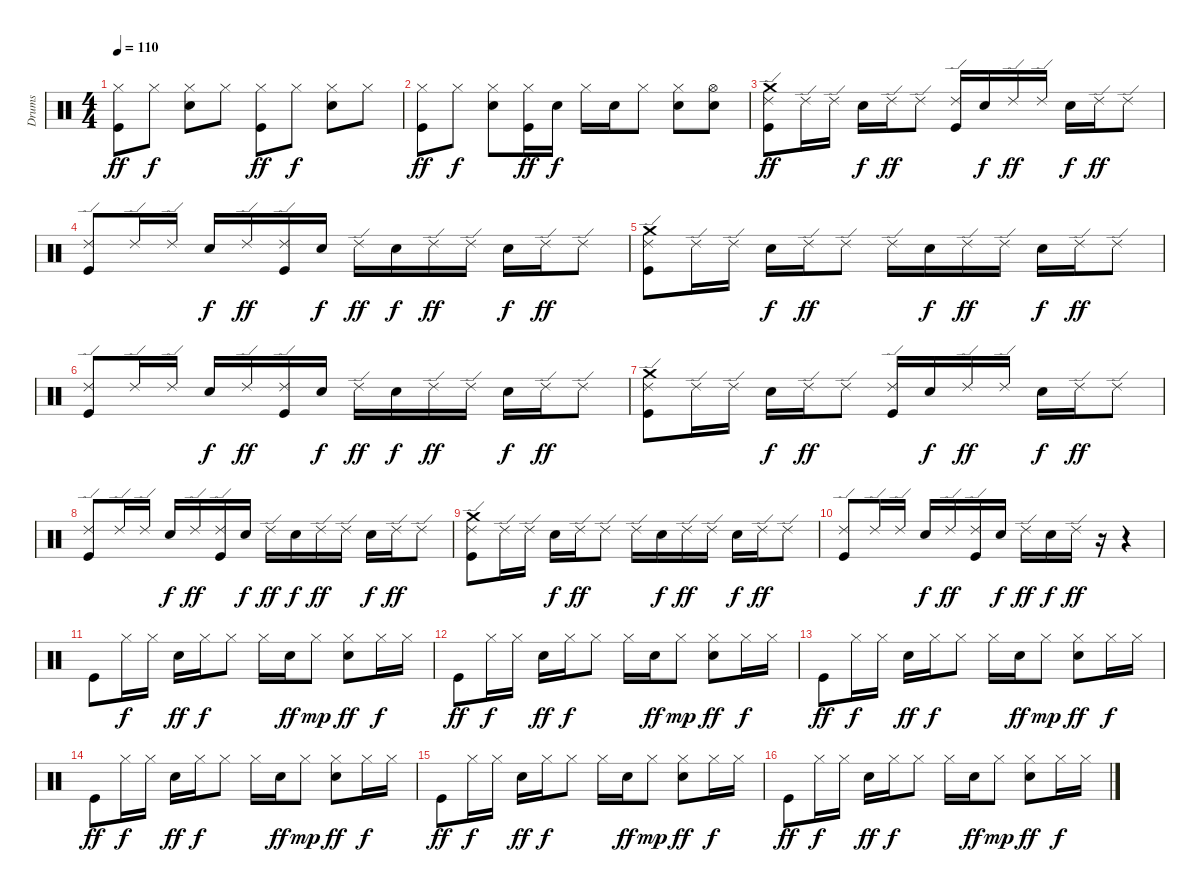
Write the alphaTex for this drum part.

\track ("Drums" "Drums") {instrument percussion}
\staff {score}
\articulation defaults
\ts (4 4)
\tempo 110
\clef neutral
\ks c
("Hi-Hat (closed)" "Kick (hit)").8{dy ff} "Hi-Hat (closed)".8{dy f} ("Hi-Hat (closed)" "Snare (hit) 2").8 "Hi-Hat (closed)".8 ("Hi-Hat (closed)" "Kick (hit)").8{dy ff} "Hi-Hat (closed)".8{dy f} ("Hi-Hat (closed)" "Snare (hit) 2").8 "Hi-Hat (closed)".8 |
("Hi-Hat (closed)" "Kick (hit)").8{dy ff} "Hi-Hat (closed)".8{dy f} ("Hi-Hat (closed)" "Snare (hit) 2").8 ("Hi-Hat (closed)" "Kick (hit)").16{dy ff} "Snare (hit) 2".16{dy f} "Hi-Hat (closed)".16 "Snare (hit) 2".16 "Hi-Hat (closed)".8 ("Hi-Hat (closed)" "Snare (hit) 2").8 ("Hi-Hat (open)" "Snare (hit) 2").8 |
("Ride (edge) 2" "Crash medium (hit)" "Kick (hit)").8{dy ff} "Ride (edge) 2".16 "Ride (edge) 2".16 "Snare (hit) 2".16{dy f} "Ride (edge) 2".16{dy ff} "Ride (edge) 2".8 ("Ride (edge) 2" "Kick (hit)").16 "Snare (hit) 2".16{dy f} "Ride (edge) 2".16{dy ff} "Ride (edge) 2".16 "Snare (hit) 2".16{dy f} "Ride (edge) 2".16{dy ff} "Ride (edge) 2".8 |
("Ride (edge) 2" "Kick (hit)").8 "Ride (edge) 2".16 "Ride (edge) 2".16 "Snare (hit) 2".16{dy f} "Ride (edge) 2".16{dy ff} ("Ride (edge) 2" "Kick (hit)").16 "Snare (hit) 2".16{dy f} "Ride (edge) 2".16{dy ff} "Snare (hit) 2".16{dy f} "Ride (edge) 2".16{dy ff} "Ride (edge) 2".16 "Snare (hit) 2".16{dy f} "Ride (edge) 2".16{dy ff} "Ride (edge) 2".8 |
("Ride (edge) 2" "Crash medium (hit)" "Kick (hit)").8 "Ride (edge) 2".16 "Ride (edge) 2".16 "Snare (hit) 2".16{dy f} "Ride (edge) 2".16{dy ff} "Ride (edge) 2".8 "Ride (edge) 2".16 "Snare (hit) 2".16{dy f} "Ride (edge) 2".16{dy ff} "Ride (edge) 2".16 "Snare (hit) 2".16{dy f} "Ride (edge) 2".16{dy ff} "Ride (edge) 2".8 |
("Ride (edge) 2" "Kick (hit)").8 "Ride (edge) 2".16 "Ride (edge) 2".16 "Snare (hit) 2".16{dy f} "Ride (edge) 2".16{dy ff} ("Ride (edge) 2" "Kick (hit)").16 "Snare (hit) 2".16{dy f} "Ride (edge) 2".16{dy ff} "Snare (hit) 2".16{dy f} "Ride (edge) 2".16{dy ff} "Ride (edge) 2".16 "Snare (hit) 2".16{dy f} "Ride (edge) 2".16{dy ff} "Ride (edge) 2".8 |
("Ride (edge) 2" "Crash medium (hit)" "Kick (hit)").8 "Ride (edge) 2".16 "Ride (edge) 2".16 "Snare (hit) 2".16{dy f} "Ride (edge) 2".16{dy ff} "Ride (edge) 2".8 ("Ride (edge) 2" "Kick (hit)").16 "Snare (hit) 2".16{dy f} "Ride (edge) 2".16{dy ff} "Ride (edge) 2".16 "Snare (hit) 2".16{dy f} "Ride (edge) 2".16{dy ff} "Ride (edge) 2".8 |
("Ride (edge) 2" "Kick (hit)").8 "Ride (edge) 2".16 "Ride (edge) 2".16 "Snare (hit) 2".16{dy f} "Ride (edge) 2".16{dy ff} ("Ride (edge) 2" "Kick (hit)").16 "Snare (hit) 2".16{dy f} "Ride (edge) 2".16{dy ff} "Snare (hit) 2".16{dy f} "Ride (edge) 2".16{dy ff} "Ride (edge) 2".16 "Snare (hit) 2".16{dy f} "Ride (edge) 2".16{dy ff} "Ride (edge) 2".8 |
("Ride (edge) 2" "Crash medium (hit)" "Kick (hit)").8 "Ride (edge) 2".16 "Ride (edge) 2".16 "Snare (hit) 2".16{dy f} "Ride (edge) 2".16{dy ff} "Ride (edge) 2".8 "Ride (edge) 2".16 "Snare (hit) 2".16{dy f} "Ride (edge) 2".16{dy ff} "Ride (edge) 2".16 "Snare (hit) 2".16{dy f} "Ride (edge) 2".16{dy ff} "Ride (edge) 2".8 |
("Ride (edge) 2" "Kick (hit)").8 "Ride (edge) 2".16 "Ride (edge) 2".16 "Snare (hit) 2".16{dy f} "Ride (edge) 2".16{dy ff} ("Ride (edge) 2" "Kick (hit)").16 "Snare (hit) 2".16{dy f} "Ride (edge) 2".16{dy ff} "Snare (hit) 2".16{dy f} "Ride (edge) 2".16{dy ff} r.16 r.4 |
"Kick (hit)".8 "Hi-Hat (closed)".16{dy f} "Hi-Hat (closed)".16 "Snare (hit) 2".16{dy ff} "Hi-Hat (closed)".16{dy f} "Hi-Hat (closed)".8 "Hi-Hat (closed)".16 "Snare (hit) 2".16{dy ff} "Hi-Hat (closed)".8{dy mp} ("Hi-Hat (closed)" "Snare (hit) 2").8{dy ff} "Hi-Hat (closed)".16{dy f} "Hi-Hat (closed)".16 |
"Kick (hit)".8{dy ff} "Hi-Hat (closed)".16{dy f} "Hi-Hat (closed)".16 "Snare (hit) 2".16{dy ff} "Hi-Hat (closed)".16{dy f} "Hi-Hat (closed)".8 "Hi-Hat (closed)".16 "Snare (hit) 2".16{dy ff} "Hi-Hat (closed)".8{dy mp} ("Hi-Hat (closed)" "Snare (hit) 2").8{dy ff} "Hi-Hat (closed)".16{dy f} "Hi-Hat (closed)".16 |
"Kick (hit)".8{dy ff} "Hi-Hat (closed)".16{dy f} "Hi-Hat (closed)".16 "Snare (hit) 2".16{dy ff} "Hi-Hat (closed)".16{dy f} "Hi-Hat (closed)".8 "Hi-Hat (closed)".16 "Snare (hit) 2".16{dy ff} "Hi-Hat (closed)".8{dy mp} ("Hi-Hat (closed)" "Snare (hit) 2").8{dy ff} "Hi-Hat (closed)".16{dy f} "Hi-Hat (closed)".16 |
"Kick (hit)".8{dy ff} "Hi-Hat (closed)".16{dy f} "Hi-Hat (closed)".16 "Snare (hit) 2".16{dy ff} "Hi-Hat (closed)".16{dy f} "Hi-Hat (closed)".8 "Hi-Hat (closed)".16 "Snare (hit) 2".16{dy ff} "Hi-Hat (closed)".8{dy mp} ("Hi-Hat (closed)" "Snare (hit) 2").8{dy ff} "Hi-Hat (closed)".16{dy f} "Hi-Hat (closed)".16 |
"Kick (hit)".8{dy ff} "Hi-Hat (closed)".16{dy f} "Hi-Hat (closed)".16 "Snare (hit) 2".16{dy ff} "Hi-Hat (closed)".16{dy f} "Hi-Hat (closed)".8 "Hi-Hat (closed)".16 "Snare (hit) 2".16{dy ff} "Hi-Hat (closed)".8{dy mp} ("Hi-Hat (closed)" "Snare (hit) 2").8{dy ff} "Hi-Hat (closed)".16{dy f} "Hi-Hat (closed)".16 |
"Kick (hit)".8{dy ff} "Hi-Hat (closed)".16{dy f} "Hi-Hat (closed)".16 "Snare (hit) 2".16{dy ff} "Hi-Hat (closed)".16{dy f} "Hi-Hat (closed)".8 "Hi-Hat (closed)".16 "Snare (hit) 2".16{dy ff} "Hi-Hat (closed)".8{dy mp} ("Hi-Hat (closed)" "Snare (hit) 2").8{dy ff} "Hi-Hat (closed)".16{dy f} "Hi-Hat (closed)".16
